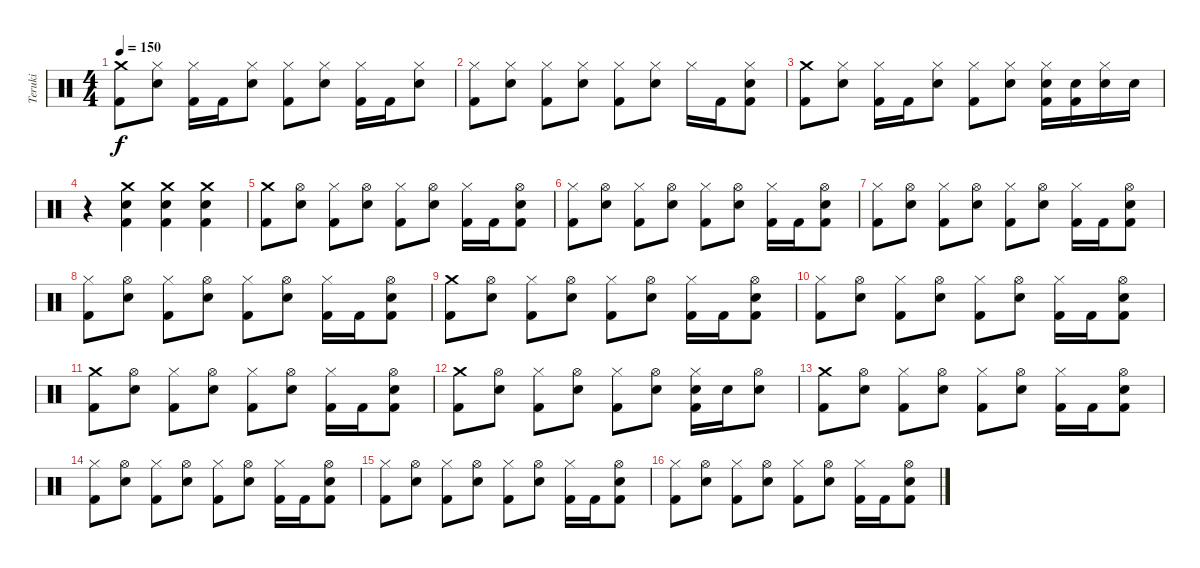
\track ("Teruki" "Teruki") {instrument percussion}
\staff {score}
\articulation defaults
\ts (4 4)
\tempo 150
\clef neutral
\ks c
("Crash medium (hit)" "Kick (hit) 2").8{dy f} ("Hi-Hat (closed)" "Electric Snare (hit)").8 ("Hi-Hat (closed)" "Kick (hit) 2").16 "Kick (hit) 2".16 ("Hi-Hat (closed)" "Electric Snare (hit)").8 ("Hi-Hat (closed)" "Kick (hit) 2").8 ("Hi-Hat (closed)" "Electric Snare (hit)").8 ("Hi-Hat (closed)" "Kick (hit) 2").16 "Kick (hit) 2".16 ("Hi-Hat (closed)" "Electric Snare (hit)").8 |
("Hi-Hat (closed)" "Kick (hit) 2").8 ("Hi-Hat (closed)" "Electric Snare (hit)").8 ("Hi-Hat (closed)" "Kick (hit) 2").8 ("Hi-Hat (closed)" "Electric Snare (hit)").8 ("Hi-Hat (closed)" "Kick (hit) 2").8 ("Hi-Hat (closed)" "Electric Snare (hit)").8 "Hi-Hat (closed)".16 "Kick (hit) 2".16 ("Hi-Hat (closed)" "Electric Snare (hit)" "Kick (hit) 2").8 |
("Crash medium (hit)" "Kick (hit) 2").8 ("Hi-Hat (closed)" "Electric Snare (hit)").8 ("Hi-Hat (closed)" "Kick (hit) 2").16 "Kick (hit) 2".16 ("Hi-Hat (closed)" "Electric Snare (hit)").8 ("Hi-Hat (closed)" "Kick (hit) 2").8 ("Hi-Hat (closed)" "Electric Snare (hit)").8 ("Hi-Hat (closed)" "Electric Snare (hit)" "Kick (hit) 2").16 ("Electric Snare (hit)" "Kick (hit) 2").16 ("Hi-Hat (closed)" "Electric Snare (hit)").16 "Electric Snare (hit)".16 |
r.4 ("Crash medium (hit)" "Electric Snare (hit)" "Kick (hit) 2").4 ("Crash medium (hit)" "Electric Snare (hit)" "Kick (hit) 2").4 ("Crash medium (hit)" "Electric Snare (hit)" "Kick (hit) 2").4 |
("Crash medium (hit)" "Kick (hit) 2").8 ("Hi-Hat (open)" "Electric Snare (hit)").8 ("Hi-Hat (closed)" "Kick (hit) 2").8 ("Hi-Hat (open)" "Electric Snare (hit)").8 ("Hi-Hat (closed)" "Kick (hit) 2").8 ("Hi-Hat (open)" "Electric Snare (hit)").8 ("Hi-Hat (closed)" "Kick (hit) 2").16 "Kick (hit) 2".16 ("Hi-Hat (open)" "Electric Snare (hit)" "Kick (hit) 2").8 |
("Hi-Hat (closed)" "Kick (hit) 2").8 ("Hi-Hat (open)" "Electric Snare (hit)").8 ("Hi-Hat (closed)" "Kick (hit) 2").8 ("Hi-Hat (open)" "Electric Snare (hit)").8 ("Hi-Hat (closed)" "Kick (hit) 2").8 ("Hi-Hat (open)" "Electric Snare (hit)").8 ("Hi-Hat (closed)" "Kick (hit) 2").16 "Kick (hit) 2".16 ("Hi-Hat (open)" "Electric Snare (hit)" "Kick (hit) 2").8 |
("Hi-Hat (closed)" "Kick (hit) 2").8 ("Hi-Hat (open)" "Electric Snare (hit)").8 ("Hi-Hat (closed)" "Kick (hit) 2").8 ("Hi-Hat (open)" "Electric Snare (hit)").8 ("Hi-Hat (closed)" "Kick (hit) 2").8 ("Hi-Hat (open)" "Electric Snare (hit)").8 ("Hi-Hat (closed)" "Kick (hit) 2").16 "Kick (hit) 2".16 ("Hi-Hat (open)" "Electric Snare (hit)" "Kick (hit) 2").8 |
("Hi-Hat (closed)" "Kick (hit) 2").8 ("Hi-Hat (open)" "Electric Snare (hit)").8 ("Hi-Hat (closed)" "Kick (hit) 2").8 ("Hi-Hat (open)" "Electric Snare (hit)").8 ("Hi-Hat (closed)" "Kick (hit) 2").8 ("Hi-Hat (open)" "Electric Snare (hit)").8 ("Hi-Hat (closed)" "Kick (hit) 2").16 "Kick (hit) 2".16 ("Hi-Hat (open)" "Electric Snare (hit)" "Kick (hit) 2").8 |
("Crash medium (hit)" "Kick (hit) 2").8 ("Hi-Hat (open)" "Electric Snare (hit)").8 ("Hi-Hat (closed)" "Kick (hit) 2").8 ("Hi-Hat (open)" "Electric Snare (hit)").8 ("Hi-Hat (closed)" "Kick (hit) 2").8 ("Hi-Hat (open)" "Electric Snare (hit)").8 ("Hi-Hat (closed)" "Kick (hit) 2").16 "Kick (hit) 2".16 ("Hi-Hat (open)" "Electric Snare (hit)" "Kick (hit) 2").8 |
("Hi-Hat (closed)" "Kick (hit) 2").8 ("Hi-Hat (open)" "Electric Snare (hit)").8 ("Hi-Hat (closed)" "Kick (hit) 2").8 ("Hi-Hat (open)" "Electric Snare (hit)").8 ("Hi-Hat (closed)" "Kick (hit) 2").8 ("Hi-Hat (open)" "Electric Snare (hit)").8 ("Hi-Hat (closed)" "Kick (hit) 2").16 "Kick (hit) 2".16 ("Hi-Hat (open)" "Electric Snare (hit)" "Kick (hit) 2").8 |
("Crash medium (hit)" "Kick (hit) 2").8 ("Hi-Hat (open)" "Electric Snare (hit)").8 ("Hi-Hat (closed)" "Kick (hit) 2").8 ("Hi-Hat (open)" "Electric Snare (hit)").8 ("Hi-Hat (closed)" "Kick (hit) 2").8 ("Hi-Hat (open)" "Electric Snare (hit)").8 ("Hi-Hat (closed)" "Kick (hit) 2").16 "Kick (hit) 2".16 ("Hi-Hat (open)" "Electric Snare (hit)" "Kick (hit) 2").8 |
("Crash medium (hit)" "Kick (hit) 2").8 ("Hi-Hat (open)" "Electric Snare (hit)").8 ("Hi-Hat (closed)" "Kick (hit) 2").8 ("Hi-Hat (open)" "Electric Snare (hit)").8 ("Hi-Hat (closed)" "Kick (hit) 2").8 ("Hi-Hat (open)" "Electric Snare (hit)").8 ("Hi-Hat (closed)" "Electric Snare (hit)" "Kick (hit) 2").16 "Electric Snare (hit)".16 ("Hi-Hat (open)" "Electric Snare (hit)").8 |
("Crash medium (hit)" "Kick (hit) 2").8 ("Hi-Hat (open)" "Electric Snare (hit)").8 ("Hi-Hat (closed)" "Kick (hit) 2").8 ("Hi-Hat (open)" "Electric Snare (hit)").8 ("Hi-Hat (closed)" "Kick (hit) 2").8 ("Hi-Hat (open)" "Electric Snare (hit)").8 ("Hi-Hat (closed)" "Kick (hit) 2").16 "Kick (hit) 2".16 ("Hi-Hat (open)" "Electric Snare (hit)" "Kick (hit) 2").8 |
("Hi-Hat (closed)" "Kick (hit) 2").8 ("Hi-Hat (open)" "Electric Snare (hit)").8 ("Hi-Hat (closed)" "Kick (hit) 2").8 ("Hi-Hat (open)" "Electric Snare (hit)").8 ("Hi-Hat (closed)" "Kick (hit) 2").8 ("Hi-Hat (open)" "Electric Snare (hit)").8 ("Hi-Hat (closed)" "Kick (hit) 2").16 "Kick (hit) 2".16 ("Hi-Hat (open)" "Electric Snare (hit)" "Kick (hit) 2").8 |
("Hi-Hat (closed)" "Kick (hit) 2").8 ("Hi-Hat (open)" "Electric Snare (hit)").8 ("Hi-Hat (closed)" "Kick (hit) 2").8 ("Hi-Hat (open)" "Electric Snare (hit)").8 ("Hi-Hat (closed)" "Kick (hit) 2").8 ("Hi-Hat (open)" "Electric Snare (hit)").8 ("Hi-Hat (closed)" "Kick (hit) 2").16 "Kick (hit) 2".16 ("Hi-Hat (open)" "Electric Snare (hit)" "Kick (hit) 2").8 |
("Hi-Hat (closed)" "Kick (hit) 2").8 ("Hi-Hat (open)" "Electric Snare (hit)").8 ("Hi-Hat (closed)" "Kick (hit) 2").8 ("Hi-Hat (open)" "Electric Snare (hit)").8 ("Hi-Hat (closed)" "Kick (hit) 2").8 ("Hi-Hat (open)" "Electric Snare (hit)").8 ("Hi-Hat (closed)" "Kick (hit) 2").16 "Kick (hit) 2".16 ("Hi-Hat (open)" "Electric Snare (hit)" "Kick (hit) 2").8
